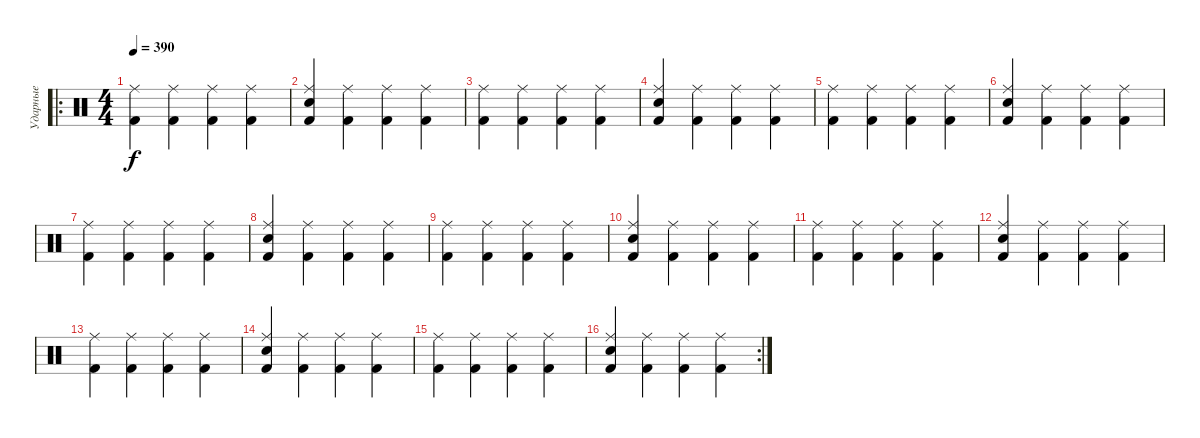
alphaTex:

\track ("Ударные" "Ударные") {instrument percussion}
\staff {score}
\articulation defaults
\ro
\ts (4 4)
\tempo 390
\clef neutral
\ks c
("Kick (hit) 2" "Ride (middle)").4{dy f} ("Kick (hit) 2" "Ride (middle)").4 ("Kick (hit) 2" "Ride (middle)").4 ("Kick (hit) 2" "Ride (middle)").4 |
("Kick (hit) 2" "Ride (middle)" "Electric Snare (hit)").4 ("Kick (hit) 2" "Ride (middle)").4 ("Kick (hit) 2" "Ride (middle)").4 ("Kick (hit) 2" "Ride (middle)").4 |
("Kick (hit) 2" "Ride (middle)").4 ("Kick (hit) 2" "Ride (middle)").4 ("Kick (hit) 2" "Ride (middle)").4 ("Kick (hit) 2" "Ride (middle)").4 |
("Kick (hit) 2" "Ride (middle)" "Electric Snare (hit)").4 ("Kick (hit) 2" "Ride (middle)").4 ("Kick (hit) 2" "Ride (middle)").4 ("Kick (hit) 2" "Ride (middle)").4 |
("Kick (hit) 2" "Ride (middle)").4 ("Kick (hit) 2" "Ride (middle)").4 ("Kick (hit) 2" "Ride (middle)").4 ("Kick (hit) 2" "Ride (middle)").4 |
("Kick (hit) 2" "Ride (middle)" "Electric Snare (hit)").4 ("Kick (hit) 2" "Ride (middle)").4 ("Kick (hit) 2" "Ride (middle)").4 ("Kick (hit) 2" "Ride (middle)").4 |
("Kick (hit) 2" "Ride (middle)").4 ("Kick (hit) 2" "Ride (middle)").4 ("Kick (hit) 2" "Ride (middle)").4 ("Kick (hit) 2" "Ride (middle)").4 |
("Kick (hit) 2" "Ride (middle)" "Electric Snare (hit)").4 ("Kick (hit) 2" "Ride (middle)").4 ("Kick (hit) 2" "Ride (middle)").4 ("Kick (hit) 2" "Ride (middle)").4 |
("Kick (hit) 2" "Ride (middle)").4 ("Kick (hit) 2" "Ride (middle)").4 ("Kick (hit) 2" "Ride (middle)").4 ("Kick (hit) 2" "Ride (middle)").4 |
("Kick (hit) 2" "Ride (middle)" "Electric Snare (hit)").4 ("Kick (hit) 2" "Ride (middle)").4 ("Kick (hit) 2" "Ride (middle)").4 ("Kick (hit) 2" "Ride (middle)").4 |
("Kick (hit) 2" "Ride (middle)").4 ("Kick (hit) 2" "Ride (middle)").4 ("Kick (hit) 2" "Ride (middle)").4 ("Kick (hit) 2" "Ride (middle)").4 |
("Kick (hit) 2" "Ride (middle)" "Electric Snare (hit)").4 ("Kick (hit) 2" "Ride (middle)").4 ("Kick (hit) 2" "Ride (middle)").4 ("Kick (hit) 2" "Ride (middle)").4 |
("Kick (hit) 2" "Ride (middle)").4 ("Kick (hit) 2" "Ride (middle)").4 ("Kick (hit) 2" "Ride (middle)").4 ("Kick (hit) 2" "Ride (middle)").4 |
("Kick (hit) 2" "Ride (middle)" "Electric Snare (hit)").4 ("Kick (hit) 2" "Ride (middle)").4 ("Kick (hit) 2" "Ride (middle)").4 ("Kick (hit) 2" "Ride (middle)").4 |
("Kick (hit) 2" "Ride (middle)").4 ("Kick (hit) 2" "Ride (middle)").4 ("Kick (hit) 2" "Ride (middle)").4 ("Kick (hit) 2" "Ride (middle)").4 |
\rc 2
("Kick (hit) 2" "Ride (middle)" "Electric Snare (hit)").4 ("Kick (hit) 2" "Ride (middle)").4 ("Kick (hit) 2" "Ride (middle)").4 ("Kick (hit) 2" "Ride (middle)").4
